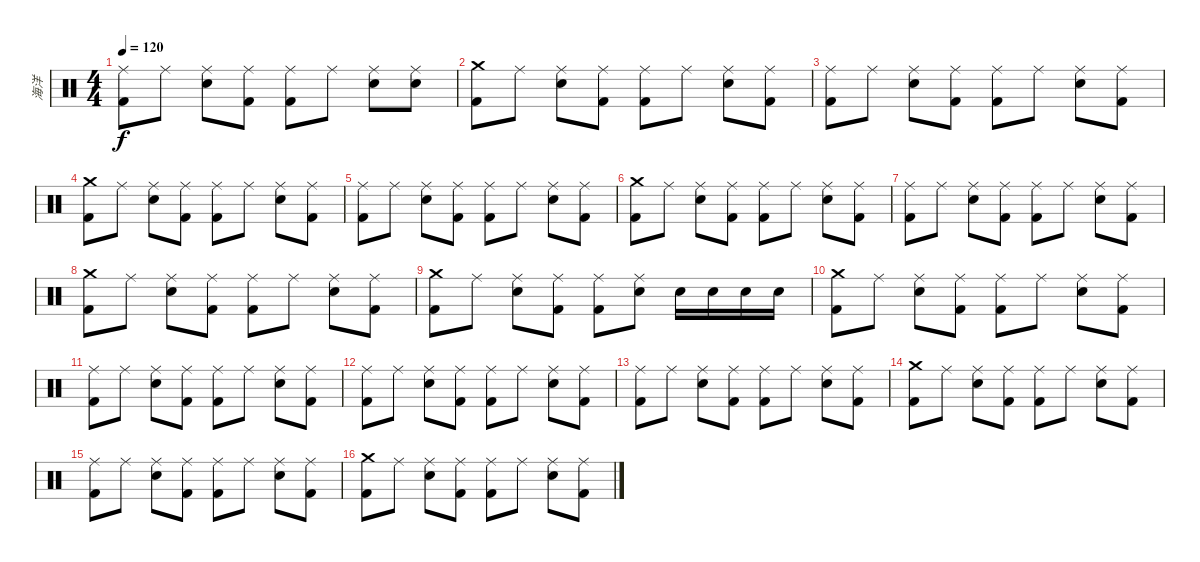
\track ("海洋" "海洋") {instrument percussion}
\staff {score}
\articulation defaults
\ts (4 4)
\tempo 120
\clef neutral
\ks c
("Ride (middle)" "Kick (hit) 2").8{dy f} "Ride (middle)".8 ("Ride (middle)" "Electric Snare (hit)").8 ("Ride (middle)" "Kick (hit) 2").8 ("Ride (middle)" "Kick (hit) 2").8 "Ride (middle)".8 ("Ride (middle)" "Electric Snare (hit)").8 ("Ride (middle)" "Electric Snare (hit)").8 |
("Crash medium (hit)" "Kick (hit) 2").8 "Ride (middle)".8 ("Ride (middle)" "Electric Snare (hit)").8 ("Ride (middle)" "Kick (hit) 2").8 ("Ride (middle)" "Kick (hit) 2").8 "Ride (middle)".8 ("Ride (middle)" "Electric Snare (hit)").8 ("Ride (middle)" "Kick (hit) 2").8 |
("Ride (middle)" "Kick (hit) 2").8 "Ride (middle)".8 ("Ride (middle)" "Electric Snare (hit)").8 ("Ride (middle)" "Kick (hit) 2").8 ("Ride (middle)" "Kick (hit) 2").8 "Ride (middle)".8 ("Ride (middle)" "Electric Snare (hit)").8 ("Ride (middle)" "Kick (hit) 2").8 |
("Crash medium (hit)" "Kick (hit) 2").8 "Ride (middle)".8 ("Ride (middle)" "Electric Snare (hit)").8 ("Ride (middle)" "Kick (hit) 2").8 ("Ride (middle)" "Kick (hit) 2").8 "Ride (middle)".8 ("Ride (middle)" "Electric Snare (hit)").8 ("Ride (middle)" "Kick (hit) 2").8 |
("Ride (middle)" "Kick (hit) 2").8 "Ride (middle)".8 ("Ride (middle)" "Electric Snare (hit)").8 ("Ride (middle)" "Kick (hit) 2").8 ("Ride (middle)" "Kick (hit) 2").8 "Ride (middle)".8 ("Ride (middle)" "Electric Snare (hit)").8 ("Ride (middle)" "Kick (hit) 2").8 |
("Crash medium (hit)" "Kick (hit) 2").8 "Ride (middle)".8 ("Ride (middle)" "Electric Snare (hit)").8 ("Ride (middle)" "Kick (hit) 2").8 ("Ride (middle)" "Kick (hit) 2").8 "Ride (middle)".8 ("Ride (middle)" "Electric Snare (hit)").8 ("Ride (middle)" "Kick (hit) 2").8 |
("Ride (middle)" "Kick (hit) 2").8 "Ride (middle)".8 ("Ride (middle)" "Electric Snare (hit)").8 ("Ride (middle)" "Kick (hit) 2").8 ("Ride (middle)" "Kick (hit) 2").8 "Ride (middle)".8 ("Ride (middle)" "Electric Snare (hit)").8 ("Ride (middle)" "Kick (hit) 2").8 |
("Crash medium (hit)" "Kick (hit) 2").8 "Ride (middle)".8 ("Ride (middle)" "Electric Snare (hit)").8 ("Ride (middle)" "Kick (hit) 2").8 ("Ride (middle)" "Kick (hit) 2").8 "Ride (middle)".8 ("Ride (middle)" "Electric Snare (hit)").8 ("Ride (middle)" "Kick (hit) 2").8 |
("Crash medium (hit)" "Kick (hit) 2").8 "Ride (middle)".8 ("Ride (middle)" "Electric Snare (hit)").8 ("Ride (middle)" "Kick (hit) 2").8 ("Ride (middle)" "Kick (hit) 2").8 ("Ride (middle)" "Electric Snare (hit)").8 "Electric Snare (hit)".16 "Electric Snare (hit)".16 "Electric Snare (hit)".16 "Electric Snare (hit)".16 |
("Crash medium (hit)" "Kick (hit) 2").8 "Ride (middle)".8 ("Ride (middle)" "Electric Snare (hit)").8 ("Ride (middle)" "Kick (hit) 2").8 ("Ride (middle)" "Kick (hit) 2").8 "Ride (middle)".8 ("Ride (middle)" "Electric Snare (hit)").8 ("Ride (middle)" "Kick (hit) 2").8 |
("Ride (middle)" "Kick (hit) 2").8 "Ride (middle)".8 ("Ride (middle)" "Electric Snare (hit)").8 ("Ride (middle)" "Kick (hit) 2").8 ("Ride (middle)" "Kick (hit) 2").8 "Ride (middle)".8 ("Ride (middle)" "Electric Snare (hit)").8 ("Ride (middle)" "Kick (hit) 2").8 |
("Ride (middle)" "Kick (hit) 2").8 "Ride (middle)".8 ("Ride (middle)" "Electric Snare (hit)").8 ("Ride (middle)" "Kick (hit) 2").8 ("Ride (middle)" "Kick (hit) 2").8 "Ride (middle)".8 ("Ride (middle)" "Electric Snare (hit)").8 ("Ride (middle)" "Kick (hit) 2").8 |
("Ride (middle)" "Kick (hit) 2").8 "Ride (middle)".8 ("Ride (middle)" "Electric Snare (hit)").8 ("Ride (middle)" "Kick (hit) 2").8 ("Ride (middle)" "Kick (hit) 2").8 "Ride (middle)".8 ("Ride (middle)" "Electric Snare (hit)").8 ("Ride (middle)" "Kick (hit) 2").8 |
("Crash medium (hit)" "Kick (hit) 2").8 "Ride (middle)".8 ("Ride (middle)" "Electric Snare (hit)").8 ("Ride (middle)" "Kick (hit) 2").8 ("Ride (middle)" "Kick (hit) 2").8 "Ride (middle)".8 ("Ride (middle)" "Electric Snare (hit)").8 ("Ride (middle)" "Kick (hit) 2").8 |
("Ride (middle)" "Kick (hit) 2").8 "Ride (middle)".8 ("Ride (middle)" "Electric Snare (hit)").8 ("Ride (middle)" "Kick (hit) 2").8 ("Ride (middle)" "Kick (hit) 2").8 "Ride (middle)".8 ("Ride (middle)" "Electric Snare (hit)").8 ("Ride (middle)" "Kick (hit) 2").8 |
("Crash medium (hit)" "Kick (hit) 2").8 "Ride (middle)".8 ("Ride (middle)" "Electric Snare (hit)").8 ("Ride (middle)" "Kick (hit) 2").8 ("Ride (middle)" "Kick (hit) 2").8 "Ride (middle)".8 ("Ride (middle)" "Electric Snare (hit)").8 ("Ride (middle)" "Kick (hit) 2").8
